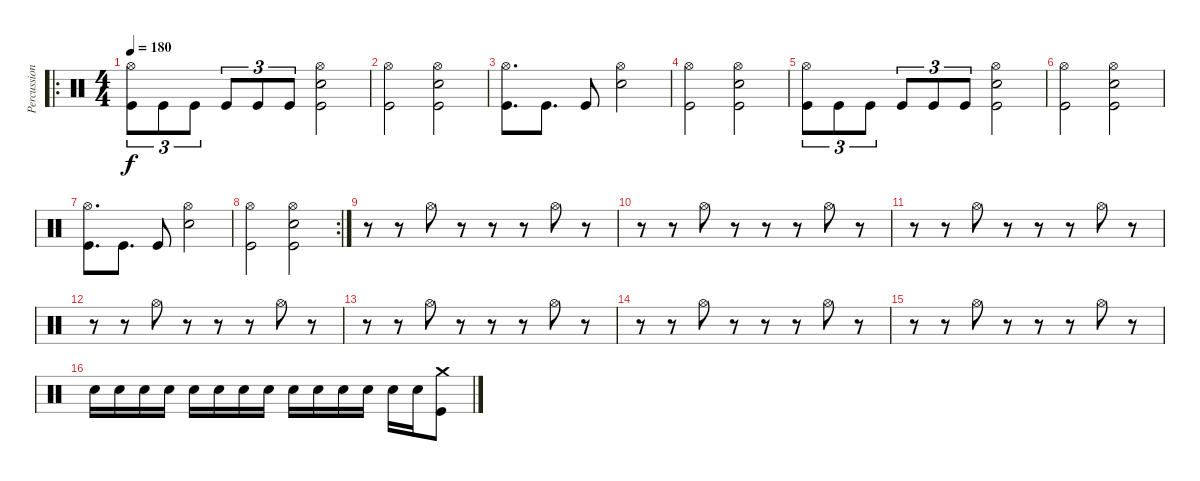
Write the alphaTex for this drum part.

\track ("Percussion" "Percussion") {instrument percussion}
\staff {score}
\articulation defaults
\ro
\ts (4 4)
\tempo 180
\clef neutral
\ks c
("Hi-Hat (open)" "Kick (hit)").8{tu (3 2) dy f} "Kick (hit)".8{tu (3 2)} "Kick (hit)".8{tu (3 2)} "Kick (hit)".8{tu (3 2)} "Kick (hit)".8{tu (3 2)} "Kick (hit)".8{tu (3 2)} ("Hi-Hat (open)" "Snare (hit) 2" "Kick (hit)").2 |
("Hi-Hat (open)" "Kick (hit)").2 ("Hi-Hat (open)" "Snare (hit) 2" "Kick (hit)").2 |
("Hi-Hat (open)" "Kick (hit)").8{d} "Kick (hit)".8{d} "Kick (hit)".8 ("Hi-Hat (open)" "Snare (hit) 2").2 |
("Hi-Hat (open)" "Kick (hit)").2 ("Hi-Hat (open)" "Snare (hit) 2" "Kick (hit)").2 |
("Hi-Hat (open)" "Kick (hit)").8{tu (3 2)} "Kick (hit)".8{tu (3 2)} "Kick (hit)".8{tu (3 2)} "Kick (hit)".8{tu (3 2)} "Kick (hit)".8{tu (3 2)} "Kick (hit)".8{tu (3 2)} ("Hi-Hat (open)" "Snare (hit) 2" "Kick (hit)").2 |
("Hi-Hat (open)" "Kick (hit)").2 ("Hi-Hat (open)" "Snare (hit) 2" "Kick (hit)").2 |
("Hi-Hat (open)" "Kick (hit)").8{d} "Kick (hit)".8{d} "Kick (hit)".8 ("Hi-Hat (open)" "Snare (hit) 2").2 |
\rc 2
("Hi-Hat (open)" "Kick (hit)").2 ("Hi-Hat (open)" "Snare (hit) 2" "Kick (hit)").2 |
r.8 r.8 "Hi-Hat (open)".8 r.8 r.8 r.8 "Hi-Hat (open)".8 r.8 |
r.8 r.8 "Hi-Hat (open)".8 r.8 r.8 r.8 "Hi-Hat (open)".8 r.8 |
r.8 r.8 "Hi-Hat (open)".8 r.8 r.8 r.8 "Hi-Hat (open)".8 r.8 |
r.8 r.8 "Hi-Hat (open)".8 r.8 r.8 r.8 "Hi-Hat (open)".8 r.8 |
r.8 r.8 "Hi-Hat (open)".8 r.8 r.8 r.8 "Hi-Hat (open)".8 r.8 |
r.8 r.8 "Hi-Hat (open)".8 r.8 r.8 r.8 "Hi-Hat (open)".8 r.8 |
r.8 r.8 "Hi-Hat (open)".8 r.8 r.8 r.8 "Hi-Hat (open)".8 r.8 |
"Snare (hit) 2".16 "Snare (hit) 2".16 "Snare (hit) 2".16 "Snare (hit) 2".16 "Snare (hit) 2".16 "Snare (hit) 2".16 "Snare (hit) 2".16 "Snare (hit) 2".16 "Snare (hit) 2".16 "Snare (hit) 2".16 "Snare (hit) 2".16 "Snare (hit) 2".16 "Snare (hit) 2".16 "Snare (hit) 2".16 ("Crash medium (hit)" "Kick (hit)").8
